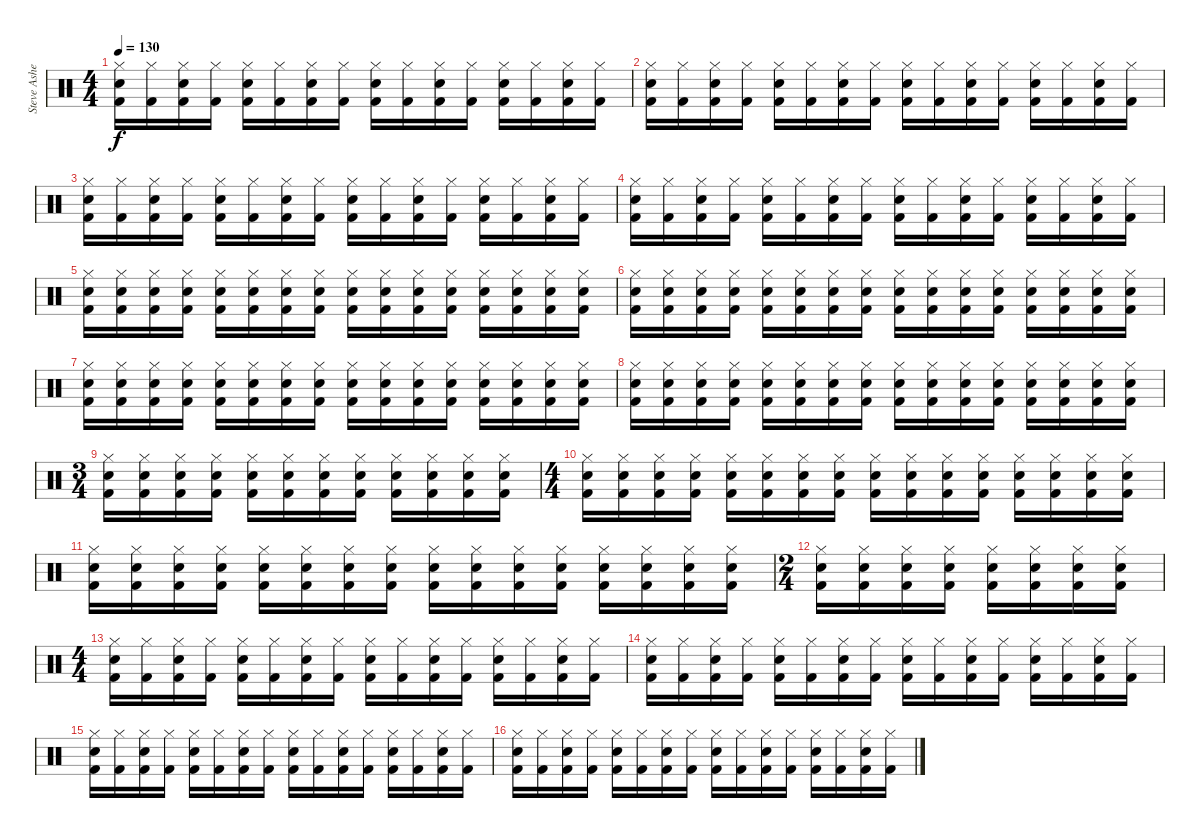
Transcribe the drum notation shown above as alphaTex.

\track ("Steve Asheim" "Steve Ashe") {instrument percussion}
\staff {score}
\articulation defaults
\ts (4 4)
\tempo 130
\clef neutral
\ks c
("Kick (hit) 2" "Electric Snare (hit)" "Hi-Hat (closed)").16{dy f} ("Kick (hit) 2" "Hi-Hat (closed)").16 ("Kick (hit) 2" "Electric Snare (hit)" "Hi-Hat (closed)").16 ("Kick (hit) 2" "Hi-Hat (closed)").16 ("Kick (hit) 2" "Electric Snare (hit)" "Hi-Hat (closed)").16 ("Kick (hit) 2" "Hi-Hat (closed)").16 ("Kick (hit) 2" "Electric Snare (hit)" "Hi-Hat (closed)").16 ("Kick (hit) 2" "Hi-Hat (closed)").16 ("Kick (hit) 2" "Electric Snare (hit)" "Hi-Hat (closed)").16 ("Kick (hit) 2" "Hi-Hat (closed)").16 ("Kick (hit) 2" "Electric Snare (hit)" "Hi-Hat (closed)").16 ("Kick (hit) 2" "Hi-Hat (closed)").16 ("Kick (hit) 2" "Electric Snare (hit)" "Hi-Hat (closed)").16 ("Kick (hit) 2" "Hi-Hat (closed)").16 ("Kick (hit) 2" "Electric Snare (hit)" "Hi-Hat (closed)").16 ("Kick (hit) 2" "Hi-Hat (closed)").16 |
("Kick (hit) 2" "Electric Snare (hit)" "Hi-Hat (closed)").16 ("Kick (hit) 2" "Hi-Hat (closed)").16 ("Kick (hit) 2" "Electric Snare (hit)" "Hi-Hat (closed)").16 ("Kick (hit) 2" "Hi-Hat (closed)").16 ("Kick (hit) 2" "Electric Snare (hit)" "Hi-Hat (closed)").16 ("Kick (hit) 2" "Hi-Hat (closed)").16 ("Kick (hit) 2" "Electric Snare (hit)" "Hi-Hat (closed)").16 ("Kick (hit) 2" "Hi-Hat (closed)").16 ("Kick (hit) 2" "Electric Snare (hit)" "Hi-Hat (closed)").16 ("Kick (hit) 2" "Hi-Hat (closed)").16 ("Kick (hit) 2" "Electric Snare (hit)" "Hi-Hat (closed)").16 ("Kick (hit) 2" "Hi-Hat (closed)").16 ("Kick (hit) 2" "Electric Snare (hit)" "Hi-Hat (closed)").16 ("Kick (hit) 2" "Hi-Hat (closed)").16 ("Kick (hit) 2" "Electric Snare (hit)" "Hi-Hat (closed)").16 ("Kick (hit) 2" "Hi-Hat (closed)").16 |
("Kick (hit) 2" "Electric Snare (hit)" "Hi-Hat (closed)").16 ("Kick (hit) 2" "Hi-Hat (closed)").16 ("Kick (hit) 2" "Electric Snare (hit)" "Hi-Hat (closed)").16 ("Kick (hit) 2" "Hi-Hat (closed)").16 ("Kick (hit) 2" "Electric Snare (hit)" "Hi-Hat (closed)").16 ("Kick (hit) 2" "Hi-Hat (closed)").16 ("Kick (hit) 2" "Electric Snare (hit)" "Hi-Hat (closed)").16 ("Kick (hit) 2" "Hi-Hat (closed)").16 ("Kick (hit) 2" "Electric Snare (hit)" "Hi-Hat (closed)").16 ("Kick (hit) 2" "Hi-Hat (closed)").16 ("Kick (hit) 2" "Electric Snare (hit)" "Hi-Hat (closed)").16 ("Kick (hit) 2" "Hi-Hat (closed)").16 ("Kick (hit) 2" "Electric Snare (hit)" "Hi-Hat (closed)").16 ("Kick (hit) 2" "Hi-Hat (closed)").16 ("Kick (hit) 2" "Electric Snare (hit)" "Hi-Hat (closed)").16 ("Kick (hit) 2" "Hi-Hat (closed)").16 |
("Kick (hit) 2" "Electric Snare (hit)" "Hi-Hat (closed)").16 ("Kick (hit) 2" "Hi-Hat (closed)").16 ("Kick (hit) 2" "Electric Snare (hit)" "Hi-Hat (closed)").16 ("Kick (hit) 2" "Hi-Hat (closed)").16 ("Kick (hit) 2" "Electric Snare (hit)" "Hi-Hat (closed)").16 ("Kick (hit) 2" "Hi-Hat (closed)").16 ("Kick (hit) 2" "Electric Snare (hit)" "Hi-Hat (closed)").16 ("Kick (hit) 2" "Hi-Hat (closed)").16 ("Kick (hit) 2" "Electric Snare (hit)" "Hi-Hat (closed)").16 ("Kick (hit) 2" "Hi-Hat (closed)").16 ("Kick (hit) 2" "Electric Snare (hit)" "Hi-Hat (closed)").16 ("Kick (hit) 2" "Hi-Hat (closed)").16 ("Kick (hit) 2" "Electric Snare (hit)" "Hi-Hat (closed)").16 ("Kick (hit) 2" "Hi-Hat (closed)").16 ("Kick (hit) 2" "Electric Snare (hit)" "Hi-Hat (closed)").16 ("Kick (hit) 2" "Hi-Hat (closed)").16 |
("Kick (hit) 2" "Electric Snare (hit)" "Hi-Hat (closed)").16 ("Kick (hit) 2" "Electric Snare (hit)" "Hi-Hat (closed)").16 ("Kick (hit) 2" "Electric Snare (hit)" "Hi-Hat (closed)").16 ("Kick (hit) 2" "Electric Snare (hit)" "Hi-Hat (closed)").16 ("Kick (hit) 2" "Electric Snare (hit)" "Hi-Hat (closed)").16 ("Kick (hit) 2" "Electric Snare (hit)" "Hi-Hat (closed)").16 ("Kick (hit) 2" "Electric Snare (hit)" "Hi-Hat (closed)").16 ("Kick (hit) 2" "Electric Snare (hit)" "Hi-Hat (closed)").16 ("Kick (hit) 2" "Electric Snare (hit)" "Hi-Hat (closed)").16 ("Kick (hit) 2" "Electric Snare (hit)" "Hi-Hat (closed)").16 ("Kick (hit) 2" "Electric Snare (hit)" "Hi-Hat (closed)").16 ("Kick (hit) 2" "Electric Snare (hit)" "Hi-Hat (closed)").16 ("Kick (hit) 2" "Electric Snare (hit)" "Hi-Hat (closed)").16 ("Kick (hit) 2" "Electric Snare (hit)" "Hi-Hat (closed)").16 ("Kick (hit) 2" "Electric Snare (hit)" "Hi-Hat (closed)").16 ("Kick (hit) 2" "Electric Snare (hit)" "Hi-Hat (closed)").16 |
("Kick (hit) 2" "Electric Snare (hit)" "Hi-Hat (closed)").16 ("Kick (hit) 2" "Electric Snare (hit)" "Hi-Hat (closed)").16 ("Kick (hit) 2" "Electric Snare (hit)" "Hi-Hat (closed)").16 ("Kick (hit) 2" "Electric Snare (hit)" "Hi-Hat (closed)").16 ("Kick (hit) 2" "Electric Snare (hit)" "Hi-Hat (closed)").16 ("Kick (hit) 2" "Electric Snare (hit)" "Hi-Hat (closed)").16 ("Kick (hit) 2" "Electric Snare (hit)" "Hi-Hat (closed)").16 ("Kick (hit) 2" "Electric Snare (hit)" "Hi-Hat (closed)").16 ("Kick (hit) 2" "Electric Snare (hit)" "Hi-Hat (closed)").16 ("Kick (hit) 2" "Electric Snare (hit)" "Hi-Hat (closed)").16 ("Kick (hit) 2" "Electric Snare (hit)" "Hi-Hat (closed)").16 ("Kick (hit) 2" "Electric Snare (hit)" "Hi-Hat (closed)").16 ("Kick (hit) 2" "Electric Snare (hit)" "Hi-Hat (closed)").16 ("Kick (hit) 2" "Electric Snare (hit)" "Hi-Hat (closed)").16 ("Kick (hit) 2" "Electric Snare (hit)" "Hi-Hat (closed)").16 ("Kick (hit) 2" "Electric Snare (hit)" "Hi-Hat (closed)").16 |
("Kick (hit) 2" "Electric Snare (hit)" "Hi-Hat (closed)").16 ("Kick (hit) 2" "Electric Snare (hit)" "Hi-Hat (closed)").16 ("Kick (hit) 2" "Electric Snare (hit)" "Hi-Hat (closed)").16 ("Kick (hit) 2" "Electric Snare (hit)" "Hi-Hat (closed)").16 ("Kick (hit) 2" "Electric Snare (hit)" "Hi-Hat (closed)").16 ("Kick (hit) 2" "Electric Snare (hit)" "Hi-Hat (closed)").16 ("Kick (hit) 2" "Electric Snare (hit)" "Hi-Hat (closed)").16 ("Kick (hit) 2" "Electric Snare (hit)" "Hi-Hat (closed)").16 ("Kick (hit) 2" "Electric Snare (hit)" "Hi-Hat (closed)").16 ("Kick (hit) 2" "Electric Snare (hit)" "Hi-Hat (closed)").16 ("Kick (hit) 2" "Electric Snare (hit)" "Hi-Hat (closed)").16 ("Kick (hit) 2" "Electric Snare (hit)" "Hi-Hat (closed)").16 ("Kick (hit) 2" "Electric Snare (hit)" "Hi-Hat (closed)").16 ("Kick (hit) 2" "Electric Snare (hit)" "Hi-Hat (closed)").16 ("Kick (hit) 2" "Electric Snare (hit)" "Hi-Hat (closed)").16 ("Kick (hit) 2" "Electric Snare (hit)" "Hi-Hat (closed)").16 |
("Kick (hit) 2" "Electric Snare (hit)" "Hi-Hat (closed)").16 ("Kick (hit) 2" "Electric Snare (hit)" "Hi-Hat (closed)").16 ("Kick (hit) 2" "Electric Snare (hit)" "Hi-Hat (closed)").16 ("Kick (hit) 2" "Electric Snare (hit)" "Hi-Hat (closed)").16 ("Kick (hit) 2" "Electric Snare (hit)" "Hi-Hat (closed)").16 ("Kick (hit) 2" "Electric Snare (hit)" "Hi-Hat (closed)").16 ("Kick (hit) 2" "Electric Snare (hit)" "Hi-Hat (closed)").16 ("Kick (hit) 2" "Electric Snare (hit)" "Hi-Hat (closed)").16 ("Kick (hit) 2" "Electric Snare (hit)" "Hi-Hat (closed)").16 ("Kick (hit) 2" "Electric Snare (hit)" "Hi-Hat (closed)").16 ("Kick (hit) 2" "Electric Snare (hit)" "Hi-Hat (closed)").16 ("Kick (hit) 2" "Electric Snare (hit)" "Hi-Hat (closed)").16 ("Kick (hit) 2" "Electric Snare (hit)" "Hi-Hat (closed)").16 ("Kick (hit) 2" "Electric Snare (hit)" "Hi-Hat (closed)").16 ("Kick (hit) 2" "Electric Snare (hit)" "Hi-Hat (closed)").16 ("Kick (hit) 2" "Electric Snare (hit)" "Hi-Hat (closed)").16 |
\ts (3 4)
("Kick (hit) 2" "Electric Snare (hit)" "Hi-Hat (closed)").16 ("Kick (hit) 2" "Electric Snare (hit)" "Hi-Hat (closed)").16 ("Kick (hit) 2" "Electric Snare (hit)" "Hi-Hat (closed)").16 ("Kick (hit) 2" "Electric Snare (hit)" "Hi-Hat (closed)").16 ("Kick (hit) 2" "Electric Snare (hit)" "Hi-Hat (closed)").16 ("Kick (hit) 2" "Electric Snare (hit)" "Hi-Hat (closed)").16 ("Kick (hit) 2" "Electric Snare (hit)" "Hi-Hat (closed)").16 ("Kick (hit) 2" "Electric Snare (hit)" "Hi-Hat (closed)").16 ("Kick (hit) 2" "Electric Snare (hit)" "Hi-Hat (closed)").16 ("Kick (hit) 2" "Electric Snare (hit)" "Hi-Hat (closed)").16 ("Kick (hit) 2" "Electric Snare (hit)" "Hi-Hat (closed)").16 ("Kick (hit) 2" "Electric Snare (hit)" "Hi-Hat (closed)").16 |
\ts (4 4)
("Kick (hit) 2" "Electric Snare (hit)" "Hi-Hat (closed)").16 ("Kick (hit) 2" "Electric Snare (hit)" "Hi-Hat (closed)").16 ("Kick (hit) 2" "Electric Snare (hit)" "Hi-Hat (closed)").16 ("Kick (hit) 2" "Electric Snare (hit)" "Hi-Hat (closed)").16 ("Kick (hit) 2" "Electric Snare (hit)" "Hi-Hat (closed)").16 ("Kick (hit) 2" "Electric Snare (hit)" "Hi-Hat (closed)").16 ("Kick (hit) 2" "Electric Snare (hit)" "Hi-Hat (closed)").16 ("Kick (hit) 2" "Electric Snare (hit)" "Hi-Hat (closed)").16 ("Kick (hit) 2" "Electric Snare (hit)" "Hi-Hat (closed)").16 ("Kick (hit) 2" "Electric Snare (hit)" "Hi-Hat (closed)").16 ("Kick (hit) 2" "Electric Snare (hit)" "Hi-Hat (closed)").16 ("Kick (hit) 2" "Electric Snare (hit)" "Hi-Hat (closed)").16 ("Kick (hit) 2" "Electric Snare (hit)" "Hi-Hat (closed)").16 ("Kick (hit) 2" "Electric Snare (hit)" "Hi-Hat (closed)").16 ("Kick (hit) 2" "Electric Snare (hit)" "Hi-Hat (closed)").16 ("Kick (hit) 2" "Electric Snare (hit)" "Hi-Hat (closed)").16 |
("Kick (hit) 2" "Electric Snare (hit)" "Hi-Hat (closed)").16 ("Kick (hit) 2" "Electric Snare (hit)" "Hi-Hat (closed)").16 ("Kick (hit) 2" "Electric Snare (hit)" "Hi-Hat (closed)").16 ("Kick (hit) 2" "Electric Snare (hit)" "Hi-Hat (closed)").16 ("Kick (hit) 2" "Electric Snare (hit)" "Hi-Hat (closed)").16 ("Kick (hit) 2" "Electric Snare (hit)" "Hi-Hat (closed)").16 ("Kick (hit) 2" "Electric Snare (hit)" "Hi-Hat (closed)").16 ("Kick (hit) 2" "Electric Snare (hit)" "Hi-Hat (closed)").16 ("Kick (hit) 2" "Electric Snare (hit)" "Hi-Hat (closed)").16 ("Kick (hit) 2" "Electric Snare (hit)" "Hi-Hat (closed)").16 ("Kick (hit) 2" "Electric Snare (hit)" "Hi-Hat (closed)").16 ("Kick (hit) 2" "Electric Snare (hit)" "Hi-Hat (closed)").16 ("Kick (hit) 2" "Electric Snare (hit)" "Hi-Hat (closed)").16 ("Kick (hit) 2" "Electric Snare (hit)" "Hi-Hat (closed)").16 ("Kick (hit) 2" "Electric Snare (hit)" "Hi-Hat (closed)").16 ("Kick (hit) 2" "Electric Snare (hit)" "Hi-Hat (closed)").16 |
\ts (2 4)
("Kick (hit) 2" "Electric Snare (hit)" "Hi-Hat (closed)").16 ("Kick (hit) 2" "Electric Snare (hit)" "Hi-Hat (closed)").16 ("Kick (hit) 2" "Electric Snare (hit)" "Hi-Hat (closed)").16 ("Kick (hit) 2" "Electric Snare (hit)" "Hi-Hat (closed)").16 ("Kick (hit) 2" "Electric Snare (hit)" "Hi-Hat (closed)").16 ("Kick (hit) 2" "Electric Snare (hit)" "Hi-Hat (closed)").16 ("Kick (hit) 2" "Electric Snare (hit)" "Hi-Hat (closed)").16 ("Kick (hit) 2" "Electric Snare (hit)" "Hi-Hat (closed)").16 |
\ts (4 4)
("Kick (hit) 2" "Electric Snare (hit)" "Hi-Hat (closed)").16 ("Kick (hit) 2" "Hi-Hat (closed)").16 ("Kick (hit) 2" "Electric Snare (hit)" "Hi-Hat (closed)").16 ("Kick (hit) 2" "Hi-Hat (closed)").16 ("Kick (hit) 2" "Electric Snare (hit)" "Hi-Hat (closed)").16 ("Kick (hit) 2" "Hi-Hat (closed)").16 ("Kick (hit) 2" "Electric Snare (hit)" "Hi-Hat (closed)").16 ("Kick (hit) 2" "Hi-Hat (closed)").16 ("Kick (hit) 2" "Electric Snare (hit)" "Hi-Hat (closed)").16 ("Kick (hit) 2" "Hi-Hat (closed)").16 ("Kick (hit) 2" "Electric Snare (hit)" "Hi-Hat (closed)").16 ("Kick (hit) 2" "Hi-Hat (closed)").16 ("Kick (hit) 2" "Electric Snare (hit)" "Hi-Hat (closed)").16 ("Kick (hit) 2" "Hi-Hat (closed)").16 ("Kick (hit) 2" "Electric Snare (hit)" "Hi-Hat (closed)").16 ("Kick (hit) 2" "Hi-Hat (closed)").16 |
("Kick (hit) 2" "Electric Snare (hit)" "Hi-Hat (closed)").16 ("Kick (hit) 2" "Hi-Hat (closed)").16 ("Kick (hit) 2" "Electric Snare (hit)" "Hi-Hat (closed)").16 ("Kick (hit) 2" "Hi-Hat (closed)").16 ("Kick (hit) 2" "Electric Snare (hit)" "Hi-Hat (closed)").16 ("Kick (hit) 2" "Hi-Hat (closed)").16 ("Kick (hit) 2" "Electric Snare (hit)" "Hi-Hat (closed)").16 ("Kick (hit) 2" "Hi-Hat (closed)").16 ("Kick (hit) 2" "Electric Snare (hit)" "Hi-Hat (closed)").16 ("Kick (hit) 2" "Hi-Hat (closed)").16 ("Kick (hit) 2" "Electric Snare (hit)" "Hi-Hat (closed)").16 ("Kick (hit) 2" "Hi-Hat (closed)").16 ("Kick (hit) 2" "Electric Snare (hit)" "Hi-Hat (closed)").16 ("Kick (hit) 2" "Hi-Hat (closed)").16 ("Kick (hit) 2" "Electric Snare (hit)" "Hi-Hat (closed)").16 ("Kick (hit) 2" "Hi-Hat (closed)").16 |
("Kick (hit) 2" "Electric Snare (hit)" "Hi-Hat (closed)").16 ("Kick (hit) 2" "Hi-Hat (closed)").16 ("Kick (hit) 2" "Electric Snare (hit)" "Hi-Hat (closed)").16 ("Kick (hit) 2" "Hi-Hat (closed)").16 ("Kick (hit) 2" "Electric Snare (hit)" "Hi-Hat (closed)").16 ("Kick (hit) 2" "Hi-Hat (closed)").16 ("Kick (hit) 2" "Electric Snare (hit)" "Hi-Hat (closed)").16 ("Kick (hit) 2" "Hi-Hat (closed)").16 ("Kick (hit) 2" "Electric Snare (hit)" "Hi-Hat (closed)").16 ("Kick (hit) 2" "Hi-Hat (closed)").16 ("Kick (hit) 2" "Electric Snare (hit)" "Hi-Hat (closed)").16 ("Kick (hit) 2" "Hi-Hat (closed)").16 ("Kick (hit) 2" "Electric Snare (hit)" "Hi-Hat (closed)").16 ("Kick (hit) 2" "Hi-Hat (closed)").16 ("Kick (hit) 2" "Electric Snare (hit)" "Hi-Hat (closed)").16 ("Kick (hit) 2" "Hi-Hat (closed)").16 |
("Kick (hit) 2" "Electric Snare (hit)" "Hi-Hat (closed)").16 ("Kick (hit) 2" "Hi-Hat (closed)").16 ("Kick (hit) 2" "Electric Snare (hit)" "Hi-Hat (closed)").16 ("Kick (hit) 2" "Hi-Hat (closed)").16 ("Kick (hit) 2" "Electric Snare (hit)" "Hi-Hat (closed)").16 ("Kick (hit) 2" "Hi-Hat (closed)").16 ("Kick (hit) 2" "Electric Snare (hit)" "Hi-Hat (closed)").16 ("Kick (hit) 2" "Hi-Hat (closed)").16 ("Kick (hit) 2" "Electric Snare (hit)" "Hi-Hat (closed)").16 ("Kick (hit) 2" "Hi-Hat (closed)").16 ("Kick (hit) 2" "Electric Snare (hit)" "Hi-Hat (closed)").16 ("Kick (hit) 2" "Hi-Hat (closed)").16 ("Kick (hit) 2" "Electric Snare (hit)" "Hi-Hat (closed)").16 ("Kick (hit) 2" "Hi-Hat (closed)").16 ("Kick (hit) 2" "Electric Snare (hit)" "Hi-Hat (closed)").16 ("Kick (hit) 2" "Hi-Hat (closed)").16
